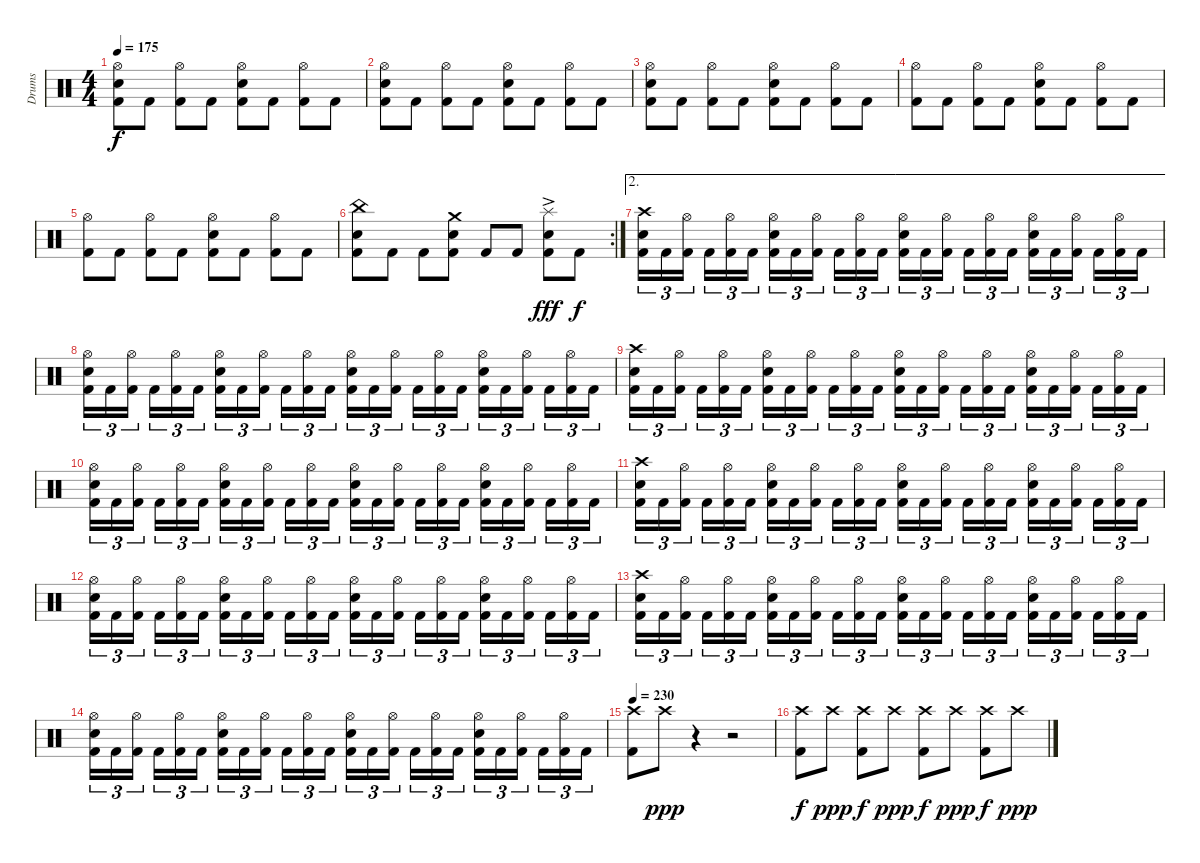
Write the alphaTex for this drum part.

\track ("Drums" "Drums") {instrument percussion}
\staff {score}
\articulation defaults
\ts (4 4)
\tempo 175
\clef neutral
\ks c
("Hi-Hat (open)" "Electric Snare (hit)" "Kick (hit) 2").8{dy f} "Kick (hit) 2".8 ("Hi-Hat (open)" "Kick (hit) 2").8 "Kick (hit) 2".8 ("Hi-Hat (open)" "Electric Snare (hit)" "Kick (hit) 2").8 "Kick (hit) 2".8 ("Hi-Hat (open)" "Kick (hit) 2").8 "Kick (hit) 2".8 |
("Hi-Hat (open)" "Electric Snare (hit)" "Kick (hit) 2").8 "Kick (hit) 2".8 ("Hi-Hat (open)" "Kick (hit) 2").8 "Kick (hit) 2".8 ("Hi-Hat (open)" "Electric Snare (hit)" "Kick (hit) 2").8 "Kick (hit) 2".8 ("Hi-Hat (open)" "Kick (hit) 2").8 "Kick (hit) 2".8 |
("Hi-Hat (open)" "Electric Snare (hit)" "Kick (hit) 2").8 "Kick (hit) 2".8 ("Hi-Hat (open)" "Kick (hit) 2").8 "Kick (hit) 2".8 ("Hi-Hat (open)" "Electric Snare (hit)" "Kick (hit) 2").8 "Kick (hit) 2".8 ("Hi-Hat (open)" "Kick (hit) 2").8 "Kick (hit) 2".8 |
("Hi-Hat (open)" "Kick (hit) 2").8 "Kick (hit) 2".8 ("Hi-Hat (open)" "Kick (hit) 2").8 "Kick (hit) 2".8 ("Hi-Hat (open)" "Electric Snare (hit)" "Kick (hit) 2").8 "Kick (hit) 2".8 ("Hi-Hat (open)" "Kick (hit) 2").8 "Kick (hit) 2".8 |
("Hi-Hat (open)" "Kick (hit) 2").8 "Kick (hit) 2".8 ("Hi-Hat (open)" "Kick (hit) 2").8 "Kick (hit) 2".8 ("Hi-Hat (open)" "Electric Snare (hit)" "Kick (hit) 2").8 "Kick (hit) 2".8 ("Hi-Hat (open)" "Kick (hit) 2").8 "Kick (hit) 2".8 |
\rc 2
("China (hit)" "Electric Snare (hit)" "Kick (hit) 2").8 "Kick (hit) 2".8 "Kick (hit) 2".8 ("Crash medium (hit)" "Electric Snare (hit)" "Kick (hit) 2").8 "Kick (hit) 2".8 "Kick (hit) 2".8 ("Splash (hit)"{ac} "Electric Snare (hit)" "Kick (hit) 2").8{dy fff} "Kick (hit) 2".8{dy f} |
\ae 2
("Crash high (hit)" "Electric Snare (hit)" "Kick (hit) 2").16{tu (3 2)} "Kick (hit) 2".16{tu (3 2)} ("Hi-Hat (open)" "Kick (hit) 2").16{tu (3 2)} "Kick (hit) 2".16{tu (3 2)} ("Hi-Hat (open)" "Kick (hit) 2").16{tu (3 2)} "Kick (hit) 2".16{tu (3 2)} ("Hi-Hat (open)" "Electric Snare (hit)" "Kick (hit) 2").16{tu (3 2)} "Kick (hit) 2".16{tu (3 2)} ("Hi-Hat (open)" "Kick (hit) 2").16{tu (3 2)} "Kick (hit) 2".16{tu (3 2)} ("Hi-Hat (open)" "Kick (hit) 2").16{tu (3 2)} "Kick (hit) 2".16{tu (3 2)} ("Hi-Hat (open)" "Electric Snare (hit)" "Kick (hit) 2").16{tu (3 2)} "Kick (hit) 2".16{tu (3 2)} ("Hi-Hat (open)" "Kick (hit) 2").16{tu (3 2)} "Kick (hit) 2".16{tu (3 2)} ("Hi-Hat (open)" "Kick (hit) 2").16{tu (3 2)} "Kick (hit) 2".16{tu (3 2)} ("Hi-Hat (open)" "Electric Snare (hit)" "Kick (hit) 2").16{tu (3 2)} "Kick (hit) 2".16{tu (3 2)} ("Hi-Hat (open)" "Kick (hit) 2").16{tu (3 2)} "Kick (hit) 2".16{tu (3 2)} ("Hi-Hat (open)" "Kick (hit) 2").16{tu (3 2)} "Kick (hit) 2".16{tu (3 2)} |
("Hi-Hat (open)" "Electric Snare (hit)" "Kick (hit) 2").16{tu (3 2)} "Kick (hit) 2".16{tu (3 2)} ("Hi-Hat (open)" "Kick (hit) 2").16{tu (3 2)} "Kick (hit) 2".16{tu (3 2)} ("Hi-Hat (open)" "Kick (hit) 2").16{tu (3 2)} "Kick (hit) 2".16{tu (3 2)} ("Hi-Hat (open)" "Electric Snare (hit)" "Kick (hit) 2").16{tu (3 2)} "Kick (hit) 2".16{tu (3 2)} ("Hi-Hat (open)" "Kick (hit) 2").16{tu (3 2)} "Kick (hit) 2".16{tu (3 2)} ("Hi-Hat (open)" "Kick (hit) 2").16{tu (3 2)} "Kick (hit) 2".16{tu (3 2)} ("Hi-Hat (open)" "Electric Snare (hit)" "Kick (hit) 2").16{tu (3 2)} "Kick (hit) 2".16{tu (3 2)} ("Hi-Hat (open)" "Kick (hit) 2").16{tu (3 2)} "Kick (hit) 2".16{tu (3 2)} ("Hi-Hat (open)" "Kick (hit) 2").16{tu (3 2)} "Kick (hit) 2".16{tu (3 2)} ("Hi-Hat (open)" "Electric Snare (hit)" "Kick (hit) 2").16{tu (3 2)} "Kick (hit) 2".16{tu (3 2)} ("Hi-Hat (open)" "Kick (hit) 2").16{tu (3 2)} "Kick (hit) 2".16{tu (3 2)} ("Hi-Hat (open)" "Kick (hit) 2").16{tu (3 2)} "Kick (hit) 2".16{tu (3 2)} |
("Crash high (hit)" "Electric Snare (hit)" "Kick (hit) 2").16{tu (3 2)} "Kick (hit) 2".16{tu (3 2)} ("Hi-Hat (open)" "Kick (hit) 2").16{tu (3 2)} "Kick (hit) 2".16{tu (3 2)} ("Hi-Hat (open)" "Kick (hit) 2").16{tu (3 2)} "Kick (hit) 2".16{tu (3 2)} ("Hi-Hat (open)" "Electric Snare (hit)" "Kick (hit) 2").16{tu (3 2)} "Kick (hit) 2".16{tu (3 2)} ("Hi-Hat (open)" "Kick (hit) 2").16{tu (3 2)} "Kick (hit) 2".16{tu (3 2)} ("Hi-Hat (open)" "Kick (hit) 2").16{tu (3 2)} "Kick (hit) 2".16{tu (3 2)} ("Hi-Hat (open)" "Electric Snare (hit)" "Kick (hit) 2").16{tu (3 2)} "Kick (hit) 2".16{tu (3 2)} ("Hi-Hat (open)" "Kick (hit) 2").16{tu (3 2)} "Kick (hit) 2".16{tu (3 2)} ("Hi-Hat (open)" "Kick (hit) 2").16{tu (3 2)} "Kick (hit) 2".16{tu (3 2)} ("Hi-Hat (open)" "Electric Snare (hit)" "Kick (hit) 2").16{tu (3 2)} "Kick (hit) 2".16{tu (3 2)} ("Hi-Hat (open)" "Kick (hit) 2").16{tu (3 2)} "Kick (hit) 2".16{tu (3 2)} ("Hi-Hat (open)" "Kick (hit) 2").16{tu (3 2)} "Kick (hit) 2".16{tu (3 2)} |
("Hi-Hat (open)" "Electric Snare (hit)" "Kick (hit) 2").16{tu (3 2)} "Kick (hit) 2".16{tu (3 2)} ("Hi-Hat (open)" "Kick (hit) 2").16{tu (3 2)} "Kick (hit) 2".16{tu (3 2)} ("Hi-Hat (open)" "Kick (hit) 2").16{tu (3 2)} "Kick (hit) 2".16{tu (3 2)} ("Hi-Hat (open)" "Electric Snare (hit)" "Kick (hit) 2").16{tu (3 2)} "Kick (hit) 2".16{tu (3 2)} ("Hi-Hat (open)" "Kick (hit) 2").16{tu (3 2)} "Kick (hit) 2".16{tu (3 2)} ("Hi-Hat (open)" "Kick (hit) 2").16{tu (3 2)} "Kick (hit) 2".16{tu (3 2)} ("Hi-Hat (open)" "Electric Snare (hit)" "Kick (hit) 2").16{tu (3 2)} "Kick (hit) 2".16{tu (3 2)} ("Hi-Hat (open)" "Kick (hit) 2").16{tu (3 2)} "Kick (hit) 2".16{tu (3 2)} ("Hi-Hat (open)" "Kick (hit) 2").16{tu (3 2)} "Kick (hit) 2".16{tu (3 2)} ("Hi-Hat (open)" "Electric Snare (hit)" "Kick (hit) 2").16{tu (3 2)} "Kick (hit) 2".16{tu (3 2)} ("Hi-Hat (open)" "Kick (hit) 2").16{tu (3 2)} "Kick (hit) 2".16{tu (3 2)} ("Hi-Hat (open)" "Kick (hit) 2").16{tu (3 2)} "Kick (hit) 2".16{tu (3 2)} |
("Crash high (hit)" "Electric Snare (hit)" "Kick (hit) 2").16{tu (3 2)} "Kick (hit) 2".16{tu (3 2)} ("Hi-Hat (open)" "Kick (hit) 2").16{tu (3 2)} "Kick (hit) 2".16{tu (3 2)} ("Hi-Hat (open)" "Kick (hit) 2").16{tu (3 2)} "Kick (hit) 2".16{tu (3 2)} ("Hi-Hat (open)" "Electric Snare (hit)" "Kick (hit) 2").16{tu (3 2)} "Kick (hit) 2".16{tu (3 2)} ("Hi-Hat (open)" "Kick (hit) 2").16{tu (3 2)} "Kick (hit) 2".16{tu (3 2)} ("Hi-Hat (open)" "Kick (hit) 2").16{tu (3 2)} "Kick (hit) 2".16{tu (3 2)} ("Hi-Hat (open)" "Electric Snare (hit)" "Kick (hit) 2").16{tu (3 2)} "Kick (hit) 2".16{tu (3 2)} ("Hi-Hat (open)" "Kick (hit) 2").16{tu (3 2)} "Kick (hit) 2".16{tu (3 2)} ("Hi-Hat (open)" "Kick (hit) 2").16{tu (3 2)} "Kick (hit) 2".16{tu (3 2)} ("Hi-Hat (open)" "Electric Snare (hit)" "Kick (hit) 2").16{tu (3 2)} "Kick (hit) 2".16{tu (3 2)} ("Hi-Hat (open)" "Kick (hit) 2").16{tu (3 2)} "Kick (hit) 2".16{tu (3 2)} ("Hi-Hat (open)" "Kick (hit) 2").16{tu (3 2)} "Kick (hit) 2".16{tu (3 2)} |
("Hi-Hat (open)" "Electric Snare (hit)" "Kick (hit) 2").16{tu (3 2)} "Kick (hit) 2".16{tu (3 2)} ("Hi-Hat (open)" "Kick (hit) 2").16{tu (3 2)} "Kick (hit) 2".16{tu (3 2)} ("Hi-Hat (open)" "Kick (hit) 2").16{tu (3 2)} "Kick (hit) 2".16{tu (3 2)} ("Hi-Hat (open)" "Electric Snare (hit)" "Kick (hit) 2").16{tu (3 2)} "Kick (hit) 2".16{tu (3 2)} ("Hi-Hat (open)" "Kick (hit) 2").16{tu (3 2)} "Kick (hit) 2".16{tu (3 2)} ("Hi-Hat (open)" "Kick (hit) 2").16{tu (3 2)} "Kick (hit) 2".16{tu (3 2)} ("Hi-Hat (open)" "Electric Snare (hit)" "Kick (hit) 2").16{tu (3 2)} "Kick (hit) 2".16{tu (3 2)} ("Hi-Hat (open)" "Kick (hit) 2").16{tu (3 2)} "Kick (hit) 2".16{tu (3 2)} ("Hi-Hat (open)" "Kick (hit) 2").16{tu (3 2)} "Kick (hit) 2".16{tu (3 2)} ("Hi-Hat (open)" "Electric Snare (hit)" "Kick (hit) 2").16{tu (3 2)} "Kick (hit) 2".16{tu (3 2)} ("Hi-Hat (open)" "Kick (hit) 2").16{tu (3 2)} "Kick (hit) 2".16{tu (3 2)} ("Hi-Hat (open)" "Kick (hit) 2").16{tu (3 2)} "Kick (hit) 2".16{tu (3 2)} |
("Crash high (hit)" "Electric Snare (hit)" "Kick (hit) 2").16{tu (3 2)} "Kick (hit) 2".16{tu (3 2)} ("Hi-Hat (open)" "Kick (hit) 2").16{tu (3 2)} "Kick (hit) 2".16{tu (3 2)} ("Hi-Hat (open)" "Kick (hit) 2").16{tu (3 2)} "Kick (hit) 2".16{tu (3 2)} ("Hi-Hat (open)" "Electric Snare (hit)" "Kick (hit) 2").16{tu (3 2)} "Kick (hit) 2".16{tu (3 2)} ("Hi-Hat (open)" "Kick (hit) 2").16{tu (3 2)} "Kick (hit) 2".16{tu (3 2)} ("Hi-Hat (open)" "Kick (hit) 2").16{tu (3 2)} "Kick (hit) 2".16{tu (3 2)} ("Hi-Hat (open)" "Electric Snare (hit)" "Kick (hit) 2").16{tu (3 2)} "Kick (hit) 2".16{tu (3 2)} ("Hi-Hat (open)" "Kick (hit) 2").16{tu (3 2)} "Kick (hit) 2".16{tu (3 2)} ("Hi-Hat (open)" "Kick (hit) 2").16{tu (3 2)} "Kick (hit) 2".16{tu (3 2)} ("Hi-Hat (open)" "Electric Snare (hit)" "Kick (hit) 2").16{tu (3 2)} "Kick (hit) 2".16{tu (3 2)} ("Hi-Hat (open)" "Kick (hit) 2").16{tu (3 2)} "Kick (hit) 2".16{tu (3 2)} ("Hi-Hat (open)" "Kick (hit) 2").16{tu (3 2)} "Kick (hit) 2".16{tu (3 2)} |
("Hi-Hat (open)" "Electric Snare (hit)" "Kick (hit) 2").16{tu (3 2)} "Kick (hit) 2".16{tu (3 2)} ("Hi-Hat (open)" "Kick (hit) 2").16{tu (3 2)} "Kick (hit) 2".16{tu (3 2)} ("Hi-Hat (open)" "Kick (hit) 2").16{tu (3 2)} "Kick (hit) 2".16{tu (3 2)} ("Hi-Hat (open)" "Electric Snare (hit)" "Kick (hit) 2").16{tu (3 2)} "Kick (hit) 2".16{tu (3 2)} ("Hi-Hat (open)" "Kick (hit) 2").16{tu (3 2)} "Kick (hit) 2".16{tu (3 2)} ("Hi-Hat (open)" "Kick (hit) 2").16{tu (3 2)} "Kick (hit) 2".16{tu (3 2)} ("Hi-Hat (open)" "Electric Snare (hit)" "Kick (hit) 2").16{tu (3 2)} "Kick (hit) 2".16{tu (3 2)} ("Hi-Hat (open)" "Kick (hit) 2").16{tu (3 2)} "Kick (hit) 2".16{tu (3 2)} ("Hi-Hat (open)" "Kick (hit) 2").16{tu (3 2)} "Kick (hit) 2".16{tu (3 2)} ("Hi-Hat (open)" "Electric Snare (hit)" "Kick (hit) 2").16{tu (3 2)} "Kick (hit) 2".16{tu (3 2)} ("Hi-Hat (open)" "Kick (hit) 2").16{tu (3 2)} "Kick (hit) 2".16{tu (3 2)} ("Hi-Hat (open)" "Kick (hit) 2").16{tu (3 2)} "Kick (hit) 2".16{tu (3 2)} |
\tempo 230
("Crash high (hit)" "Kick (hit) 2").8 "Crash high (hit)".8{dy ppp} r.4 r.2 |
("Crash high (hit)" "Kick (hit) 2").8{dy f} "Crash high (hit)".8{dy ppp} ("Crash high (hit)" "Kick (hit) 2").8{dy f} "Crash high (hit)".8{dy ppp} ("Crash high (hit)" "Kick (hit) 2").8{dy f} "Crash high (hit)".8{dy ppp} ("Crash high (hit)" "Kick (hit) 2").8{dy f} "Crash high (hit)".8{dy ppp}
